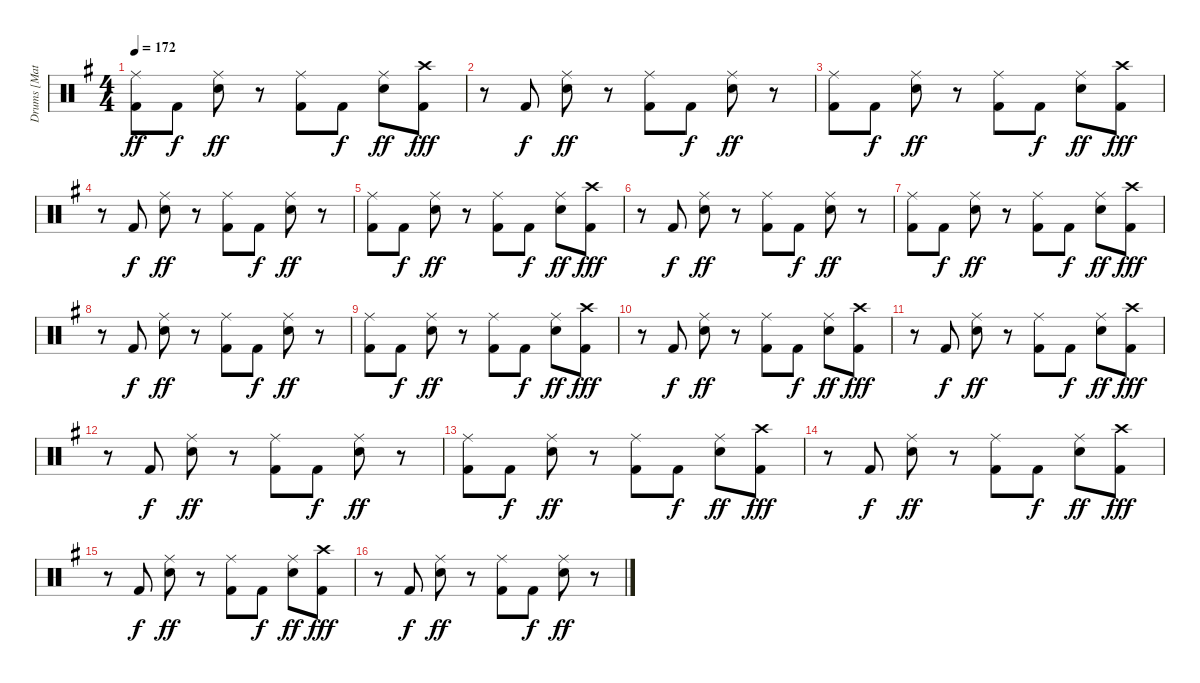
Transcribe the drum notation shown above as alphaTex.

\track ("Drums [Matt]" "Drums [Mat") {instrument percussion}
\staff {score}
\articulation defaults
\ts (4 4)
\tempo 172
\clef neutral
\ks g
("Ride (middle)" "Kick (hit) 2").8{dy ff} "Kick (hit) 2".8{dy f} ("Ride (middle)" "Snare (hit) 2").8{dy ff} r.8 ("Ride (middle)" "Kick (hit) 2").8 "Kick (hit) 2".8{dy f} ("Ride (middle)" "Snare (hit) 2").8{dy ff} ("Kick (hit) 2" "Crash high (hit)").8{dy fff} |
r.8 "Kick (hit) 2".8{dy f} ("Ride (middle)" "Snare (hit) 2").8{dy ff} r.8 ("Ride (middle)" "Kick (hit) 2").8 "Kick (hit) 2".8{dy f} ("Ride (middle)" "Snare (hit) 2").8{dy ff} r.8 |
("Ride (middle)" "Kick (hit) 2").8 "Kick (hit) 2".8{dy f} ("Ride (middle)" "Snare (hit) 2").8{dy ff} r.8 ("Ride (middle)" "Kick (hit) 2").8 "Kick (hit) 2".8{dy f} ("Ride (middle)" "Snare (hit) 2").8{dy ff} ("Kick (hit) 2" "Crash high (hit)").8{dy fff} |
r.8 "Kick (hit) 2".8{dy f} ("Ride (middle)" "Snare (hit) 2").8{dy ff} r.8 ("Ride (middle)" "Kick (hit) 2").8 "Kick (hit) 2".8{dy f} ("Ride (middle)" "Snare (hit) 2").8{dy ff} r.8 |
("Ride (middle)" "Kick (hit) 2").8 "Kick (hit) 2".8{dy f} ("Ride (middle)" "Snare (hit) 2").8{dy ff} r.8 ("Ride (middle)" "Kick (hit) 2").8 "Kick (hit) 2".8{dy f} ("Ride (middle)" "Snare (hit) 2").8{dy ff} ("Kick (hit) 2" "Crash high (hit)").8{dy fff} |
r.8 "Kick (hit) 2".8{dy f} ("Ride (middle)" "Snare (hit) 2").8{dy ff} r.8 ("Ride (middle)" "Kick (hit) 2").8 "Kick (hit) 2".8{dy f} ("Ride (middle)" "Snare (hit) 2").8{dy ff} r.8 |
("Ride (middle)" "Kick (hit) 2").8 "Kick (hit) 2".8{dy f} ("Ride (middle)" "Snare (hit) 2").8{dy ff} r.8 ("Ride (middle)" "Kick (hit) 2").8 "Kick (hit) 2".8{dy f} ("Ride (middle)" "Snare (hit) 2").8{dy ff} ("Kick (hit) 2" "Crash high (hit)").8{dy fff} |
r.8 "Kick (hit) 2".8{dy f} ("Ride (middle)" "Snare (hit) 2").8{dy ff} r.8 ("Ride (middle)" "Kick (hit) 2").8 "Kick (hit) 2".8{dy f} ("Ride (middle)" "Snare (hit) 2").8{dy ff} r.8 |
("Ride (middle)" "Kick (hit) 2").8 "Kick (hit) 2".8{dy f} ("Ride (middle)" "Snare (hit) 2").8{dy ff} r.8 ("Ride (middle)" "Kick (hit) 2").8 "Kick (hit) 2".8{dy f} ("Ride (middle)" "Snare (hit) 2").8{dy ff} ("Kick (hit) 2" "Crash high (hit)").8{dy fff} |
r.8 "Kick (hit) 2".8{dy f} ("Ride (middle)" "Snare (hit) 2").8{dy ff} r.8 ("Ride (middle)" "Kick (hit) 2").8 "Kick (hit) 2".8{dy f} ("Ride (middle)" "Snare (hit) 2").8{dy ff} ("Kick (hit) 2" "Crash high (hit)").8{dy fff} |
r.8 "Kick (hit) 2".8{dy f} ("Ride (middle)" "Snare (hit) 2").8{dy ff} r.8 ("Ride (middle)" "Kick (hit) 2").8 "Kick (hit) 2".8{dy f} ("Ride (middle)" "Snare (hit) 2").8{dy ff} ("Kick (hit) 2" "Crash high (hit)").8{dy fff} |
r.8 "Kick (hit) 2".8{dy f} ("Ride (middle)" "Snare (hit) 2").8{dy ff} r.8 ("Ride (middle)" "Kick (hit) 2").8 "Kick (hit) 2".8{dy f} ("Ride (middle)" "Snare (hit) 2").8{dy ff} r.8 |
("Ride (middle)" "Kick (hit) 2").8 "Kick (hit) 2".8{dy f} ("Ride (middle)" "Snare (hit) 2").8{dy ff} r.8 ("Ride (middle)" "Kick (hit) 2").8 "Kick (hit) 2".8{dy f} ("Ride (middle)" "Snare (hit) 2").8{dy ff} ("Kick (hit) 2" "Crash high (hit)").8{dy fff} |
r.8 "Kick (hit) 2".8{dy f} ("Ride (middle)" "Snare (hit) 2").8{dy ff} r.8 ("Ride (middle)" "Kick (hit) 2").8 "Kick (hit) 2".8{dy f} ("Ride (middle)" "Snare (hit) 2").8{dy ff} ("Kick (hit) 2" "Crash high (hit)").8{dy fff} |
r.8 "Kick (hit) 2".8{dy f} ("Ride (middle)" "Snare (hit) 2").8{dy ff} r.8 ("Ride (middle)" "Kick (hit) 2").8 "Kick (hit) 2".8{dy f} ("Ride (middle)" "Snare (hit) 2").8{dy ff} ("Kick (hit) 2" "Crash high (hit)").8{dy fff} |
r.8 "Kick (hit) 2".8{dy f} ("Ride (middle)" "Snare (hit) 2").8{dy ff} r.8 ("Ride (middle)" "Kick (hit) 2").8 "Kick (hit) 2".8{dy f} ("Ride (middle)" "Snare (hit) 2").8{dy ff} r.8
